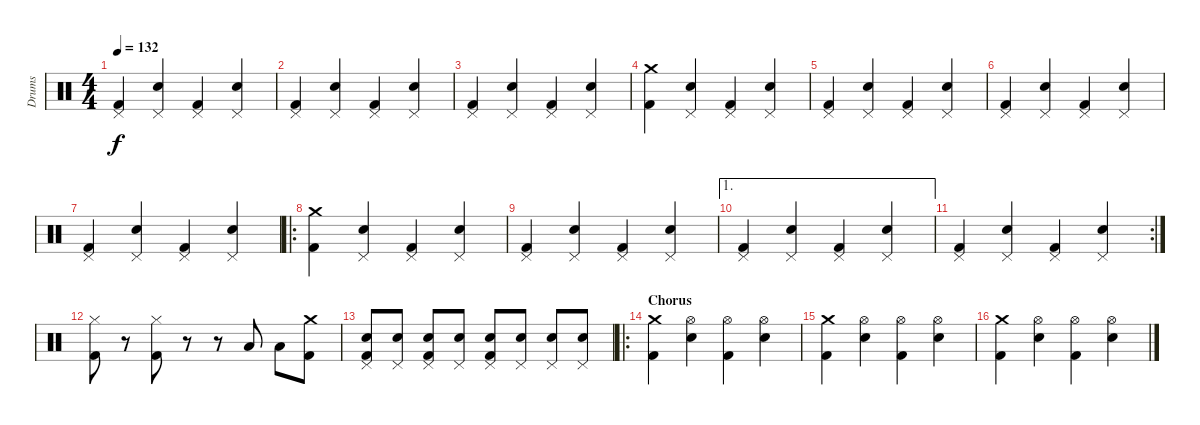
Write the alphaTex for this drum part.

\track ("Drums" "Drums") {instrument percussion}
\staff {score}
\articulation defaults
\ts (4 4)
\tempo 132
\clef neutral
\ks c
("Kick (hit) 2" "Pedal Hi-Hat (hit)").4{dy f} ("Snare (hit) 2" "Pedal Hi-Hat (hit)").4 ("Kick (hit) 2" "Pedal Hi-Hat (hit)").4 ("Snare (hit) 2" "Pedal Hi-Hat (hit)").4 |
("Kick (hit) 2" "Pedal Hi-Hat (hit)").4 ("Snare (hit) 2" "Pedal Hi-Hat (hit)").4 ("Kick (hit) 2" "Pedal Hi-Hat (hit)").4 ("Snare (hit) 2" "Pedal Hi-Hat (hit)").4 |
("Kick (hit) 2" "Pedal Hi-Hat (hit)").4 ("Snare (hit) 2" "Pedal Hi-Hat (hit)").4 ("Kick (hit) 2" "Pedal Hi-Hat (hit)").4 ("Snare (hit) 2" "Pedal Hi-Hat (hit)").4 |
("Kick (hit) 2" "Crash medium (hit)").4 ("Snare (hit) 2" "Pedal Hi-Hat (hit)").4 ("Kick (hit) 2" "Pedal Hi-Hat (hit)").4 ("Snare (hit) 2" "Pedal Hi-Hat (hit)").4 |
("Kick (hit) 2" "Pedal Hi-Hat (hit)").4 ("Snare (hit) 2" "Pedal Hi-Hat (hit)").4 ("Kick (hit) 2" "Pedal Hi-Hat (hit)").4 ("Snare (hit) 2" "Pedal Hi-Hat (hit)").4 |
("Kick (hit) 2" "Pedal Hi-Hat (hit)").4 ("Snare (hit) 2" "Pedal Hi-Hat (hit)").4 ("Kick (hit) 2" "Pedal Hi-Hat (hit)").4 ("Snare (hit) 2" "Pedal Hi-Hat (hit)").4 |
("Kick (hit) 2" "Pedal Hi-Hat (hit)").4 ("Snare (hit) 2" "Pedal Hi-Hat (hit)").4 ("Kick (hit) 2" "Pedal Hi-Hat (hit)").4 ("Snare (hit) 2" "Pedal Hi-Hat (hit)").4 |
\ro
("Kick (hit) 2" "Crash medium (hit)").4 ("Snare (hit) 2" "Pedal Hi-Hat (hit)").4 ("Kick (hit) 2" "Pedal Hi-Hat (hit)").4 ("Snare (hit) 2" "Pedal Hi-Hat (hit)").4 |
("Kick (hit) 2" "Pedal Hi-Hat (hit)").4 ("Snare (hit) 2" "Pedal Hi-Hat (hit)").4 ("Kick (hit) 2" "Pedal Hi-Hat (hit)").4 ("Snare (hit) 2" "Pedal Hi-Hat (hit)").4 |
\ae 1
("Kick (hit) 2" "Pedal Hi-Hat (hit)").4 ("Snare (hit) 2" "Pedal Hi-Hat (hit)").4 ("Kick (hit) 2" "Pedal Hi-Hat (hit)").4 ("Snare (hit) 2" "Pedal Hi-Hat (hit)").4 |
\rc 2
("Kick (hit) 2" "Pedal Hi-Hat (hit)").4 ("Snare (hit) 2" "Pedal Hi-Hat (hit)").4 ("Kick (hit) 2" "Pedal Hi-Hat (hit)").4 ("Snare (hit) 2" "Pedal Hi-Hat (hit)").4 |
("Kick (hit) 2" "Hi-Hat (closed)").8 r.8 ("Kick (hit) 2" "Hi-Hat (closed)").8 r.8 r.8 "Low Tom (hit)".8 "Low Tom (hit)".8 ("Kick (hit) 2" "Crash medium (hit)").8 |
("Kick (hit) 2" "Electric Snare (hit)" "Pedal Hi-Hat (hit)").8 ("Electric Snare (hit)" "Pedal Hi-Hat (hit)").8 ("Kick (hit) 2" "Electric Snare (hit)" "Pedal Hi-Hat (hit)").8 ("Electric Snare (hit)" "Pedal Hi-Hat (hit)").8 ("Kick (hit) 2" "Electric Snare (hit)" "Pedal Hi-Hat (hit)").8 ("Electric Snare (hit)" "Pedal Hi-Hat (hit)").8 ("Electric Snare (hit)" "Pedal Hi-Hat (hit)").8 ("Electric Snare (hit)" "Pedal Hi-Hat (hit)").8 |
\ro
\section ("" "Chorus")
("Kick (hit) 2" "Crash medium (hit)").4{volume 9} ("Electric Snare (hit)" "Hi-Hat (open)").4 ("Kick (hit) 2" "Hi-Hat (open)").4 ("Electric Snare (hit)" "Hi-Hat (open)").4 |
("Kick (hit) 2" "Crash medium (hit)").4 ("Electric Snare (hit)" "Hi-Hat (open)").4 ("Kick (hit) 2" "Hi-Hat (open)").4 ("Electric Snare (hit)" "Hi-Hat (open)").4 |
("Kick (hit) 2" "Crash medium (hit)").4 ("Electric Snare (hit)" "Hi-Hat (open)").4 ("Kick (hit) 2" "Hi-Hat (open)").4 ("Electric Snare (hit)" "Hi-Hat (open)").4
